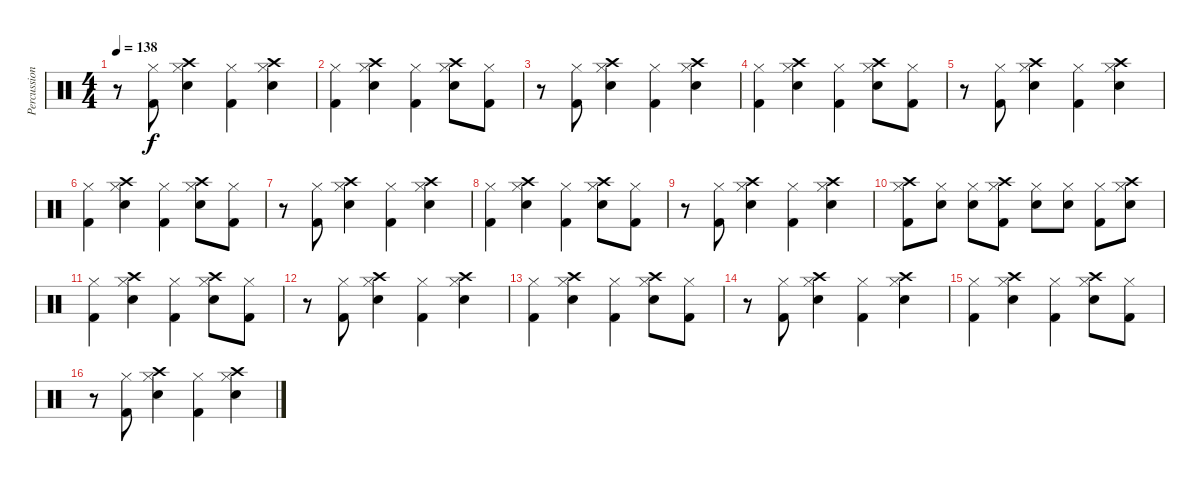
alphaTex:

\track ("Percussion" "Percussion") {instrument percussion}
\staff {score}
\articulation defaults
\ts (4 4)
\tempo 138
\clef neutral
\ks c
r.8{dy f} ("Hi-Hat (closed)" "Kick (hit) 2").8 ("Hi-Hat (closed)" "Crash high (hit)" "Electric Snare (hit)").4 ("Hi-Hat (closed)" "Kick (hit) 2").4 ("Hi-Hat (closed)" "Crash high (hit)" "Electric Snare (hit)").4 |
("Hi-Hat (closed)" "Kick (hit) 2").4 ("Hi-Hat (closed)" "Crash high (hit)" "Electric Snare (hit)").4 ("Hi-Hat (closed)" "Kick (hit) 2").4 ("Hi-Hat (closed)" "Crash high (hit)" "Electric Snare (hit)").8 ("Hi-Hat (closed)" "Kick (hit) 2").8 |
r.8 ("Hi-Hat (closed)" "Kick (hit) 2").8 ("Hi-Hat (closed)" "Crash high (hit)" "Electric Snare (hit)").4 ("Hi-Hat (closed)" "Kick (hit) 2").4 ("Hi-Hat (closed)" "Crash high (hit)" "Electric Snare (hit)").4 |
("Hi-Hat (closed)" "Kick (hit) 2").4 ("Hi-Hat (closed)" "Crash high (hit)" "Electric Snare (hit)").4 ("Hi-Hat (closed)" "Kick (hit) 2").4 ("Hi-Hat (closed)" "Crash high (hit)" "Electric Snare (hit)").8 ("Hi-Hat (closed)" "Kick (hit) 2").8 |
r.8 ("Hi-Hat (closed)" "Kick (hit) 2").8 ("Hi-Hat (closed)" "Crash high (hit)" "Electric Snare (hit)").4 ("Hi-Hat (closed)" "Kick (hit) 2").4 ("Hi-Hat (closed)" "Crash high (hit)" "Electric Snare (hit)").4 |
("Hi-Hat (closed)" "Kick (hit) 2").4 ("Hi-Hat (closed)" "Crash high (hit)" "Electric Snare (hit)").4 ("Hi-Hat (closed)" "Kick (hit) 2").4 ("Hi-Hat (closed)" "Crash high (hit)" "Electric Snare (hit)").8 ("Hi-Hat (closed)" "Kick (hit) 2").8 |
r.8 ("Hi-Hat (closed)" "Kick (hit) 2").8 ("Hi-Hat (closed)" "Crash high (hit)" "Electric Snare (hit)").4 ("Hi-Hat (closed)" "Kick (hit) 2").4 ("Hi-Hat (closed)" "Crash high (hit)" "Electric Snare (hit)").4 |
("Hi-Hat (closed)" "Kick (hit) 2").4 ("Hi-Hat (closed)" "Crash high (hit)" "Electric Snare (hit)").4 ("Hi-Hat (closed)" "Kick (hit) 2").4 ("Hi-Hat (closed)" "Crash high (hit)" "Electric Snare (hit)").8 ("Hi-Hat (closed)" "Kick (hit) 2").8 |
r.8 ("Hi-Hat (closed)" "Kick (hit) 2").8 ("Hi-Hat (closed)" "Crash high (hit)" "Electric Snare (hit)").4 ("Hi-Hat (closed)" "Kick (hit) 2").4 ("Hi-Hat (closed)" "Crash high (hit)" "Electric Snare (hit)").4 |
("Hi-Hat (closed)" "Crash high (hit)" "Kick (hit) 2").8 ("Hi-Hat (closed)" "Electric Snare (hit)").8 ("Hi-Hat (closed)" "Electric Snare (hit)").8 ("Hi-Hat (closed)" "Crash high (hit)" "Kick (hit) 2").8 ("Hi-Hat (closed)" "Electric Snare (hit)").8 ("Hi-Hat (closed)" "Electric Snare (hit)").8 ("Hi-Hat (closed)" "Kick (hit) 2").8 ("Hi-Hat (closed)" "Crash high (hit)" "Electric Snare (hit)").8 |
("Hi-Hat (closed)" "Kick (hit) 2").4 ("Hi-Hat (closed)" "Crash high (hit)" "Electric Snare (hit)").4 ("Hi-Hat (closed)" "Kick (hit) 2").4 ("Hi-Hat (closed)" "Crash high (hit)" "Electric Snare (hit)").8 ("Hi-Hat (closed)" "Kick (hit) 2").8 |
r.8 ("Hi-Hat (closed)" "Kick (hit) 2").8 ("Hi-Hat (closed)" "Crash high (hit)" "Electric Snare (hit)").4 ("Hi-Hat (closed)" "Kick (hit) 2").4 ("Hi-Hat (closed)" "Crash high (hit)" "Electric Snare (hit)").4 |
("Hi-Hat (closed)" "Kick (hit) 2").4 ("Hi-Hat (closed)" "Crash high (hit)" "Electric Snare (hit)").4 ("Hi-Hat (closed)" "Kick (hit) 2").4 ("Hi-Hat (closed)" "Crash high (hit)" "Electric Snare (hit)").8 ("Hi-Hat (closed)" "Kick (hit) 2").8 |
r.8 ("Hi-Hat (closed)" "Kick (hit) 2").8 ("Hi-Hat (closed)" "Crash high (hit)" "Electric Snare (hit)").4 ("Hi-Hat (closed)" "Kick (hit) 2").4 ("Hi-Hat (closed)" "Crash high (hit)" "Electric Snare (hit)").4 |
("Hi-Hat (closed)" "Kick (hit) 2").4 ("Hi-Hat (closed)" "Crash high (hit)" "Electric Snare (hit)").4 ("Hi-Hat (closed)" "Kick (hit) 2").4 ("Hi-Hat (closed)" "Crash high (hit)" "Electric Snare (hit)").8 ("Hi-Hat (closed)" "Kick (hit) 2").8 |
r.8 ("Hi-Hat (closed)" "Kick (hit) 2").8 ("Hi-Hat (closed)" "Crash high (hit)" "Electric Snare (hit)").4 ("Hi-Hat (closed)" "Kick (hit) 2").4 ("Hi-Hat (closed)" "Crash high (hit)" "Electric Snare (hit)").4
